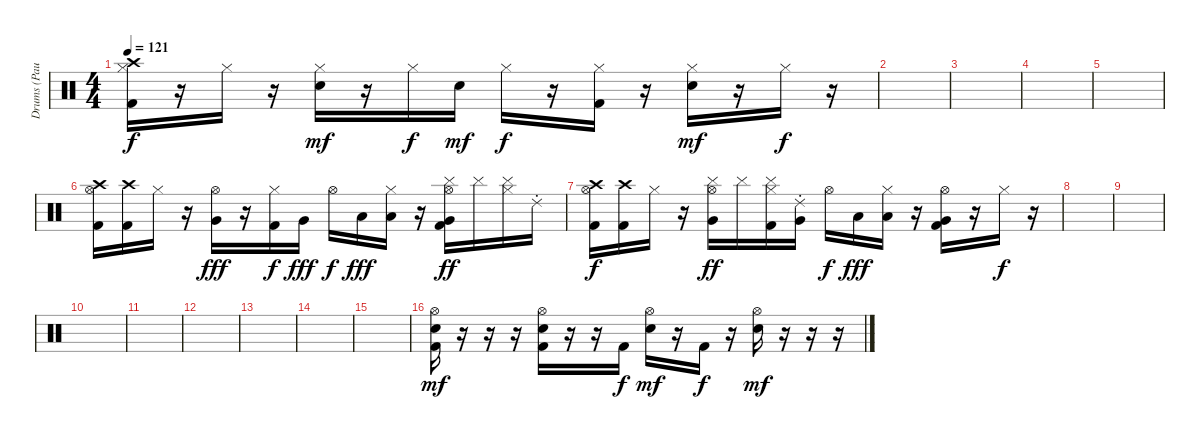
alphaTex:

\track ("Drums (Paul)" "Drums (Pau") {instrument percussion}
\staff {score}
\articulation defaults
\ts (4 4)
\tempo 121
\clef neutral
\ks c
("Hi-Hat (closed)" "Crash high (hit)" "Kick (hit) 2").16{dy f} r.16 "Hi-Hat (closed)".16 r.16 ("Hi-Hat (closed)" "Snare (hit) 2").16{dy mf} r.16 "Hi-Hat (closed)".16{dy f} "Snare (hit) 2".16{dy mf} "Hi-Hat (closed)".16{dy f} r.16 ("Hi-Hat (closed)" "Kick (hit) 2").16 r.16 ("Hi-Hat (closed)" "Snare (hit) 2").16{dy mf} r.16 "Hi-Hat (closed)".16{dy f} r.16 |
|
|
|
|
("Hi-Hat (open)" "Crash high (hit)" "Kick (hit) 2").16 ("Crash high (hit)" "Kick (hit) 2").16 "Hi-Hat (closed)".16 r.16 ("Hi-Hat (open)" "Very Low Tom (hit)").16{dy fff} r.16 ("Hi-Hat (closed)" "Kick (hit) 2").16{dy f} "Very Low Tom (hit)".16{dy fff} "Hi-Hat (open)".16{dy f} "Low Floor Tom (hit)".16{dy fff} ("Hi-Hat (closed)" "Low Floor Tom (hit)").16 r.16 ("Hi-Hat (open)" "Very Low Tom (hit)" "Cymbal (hit)" "Kick (hit) 2").16{dy ff} "Cymbal (hit)".16 ("Hi-Hat (closed)" "Cymbal (hit)").16 "Ride (choke) 2".16 |
("Hi-Hat (open)" "Crash high (hit)" "Kick (hit) 2").16{dy f} ("Crash high (hit)" "Kick (hit) 2").16 "Hi-Hat (closed)".16 r.16 ("Hi-Hat (open)" "Very Low Tom (hit)" "Cymbal (hit)").16{dy ff} "Cymbal (hit)".16 ("Hi-Hat (closed)" "Cymbal (hit)" "Kick (hit) 2").16 ("Very Low Tom (hit)" "Ride (choke) 2").16 "Hi-Hat (open)".16{dy f} "Low Floor Tom (hit)".16{dy fff} ("Hi-Hat (closed)" "Low Floor Tom (hit)").16 r.16 ("Hi-Hat (open)" "Very Low Tom (hit)" "Kick (hit) 2").16 r.16 "Hi-Hat (closed)".16{dy f} r.16 |
|
|
|
|
|
|
|
|
("Hi-Hat (open)" "Snare (hit) 2" "Kick (hit) 2").16{dy mf} r.16 r.16 r.16 ("Hi-Hat (open)" "Snare (hit) 2" "Kick (hit) 2").16 r.16 r.16 "Kick (hit) 2".16{dy f} ("Hi-Hat (open)" "Snare (hit) 2").16{dy mf} r.16 "Kick (hit) 2".16{dy f} r.16 ("Hi-Hat (open)" "Snare (hit) 2").16{dy mf} r.16 r.16 r.16
